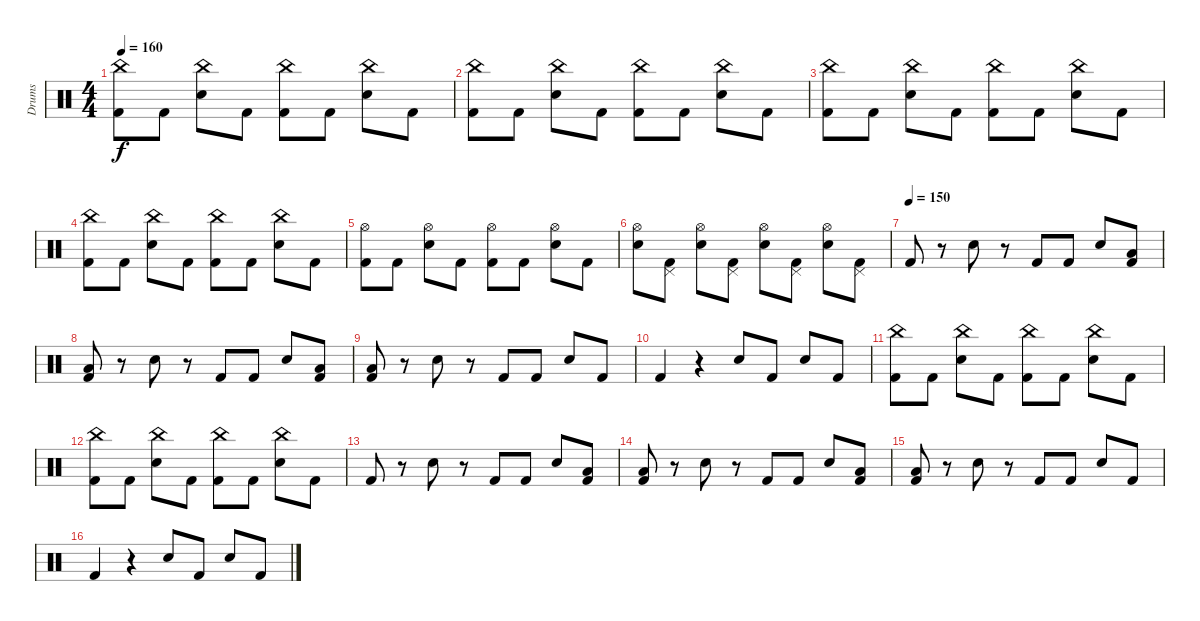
\track ("Drums" "Drums") {instrument percussion}
\staff {score}
\articulation defaults
\ts (4 4)
\tempo 160
\clef neutral
\ks c
("China (hit)" "Kick (hit) 2").8{dy f} "Kick (hit) 2".8 ("China (hit)" "Snare (hit) 2").8 "Kick (hit) 2".8 ("China (hit)" "Kick (hit) 2").8 "Kick (hit) 2".8 ("China (hit)" "Snare (hit) 2").8 "Kick (hit) 2".8 |
("China (hit)" "Kick (hit) 2").8 "Kick (hit) 2".8 ("China (hit)" "Snare (hit) 2").8 "Kick (hit) 2".8 ("China (hit)" "Kick (hit) 2").8 "Kick (hit) 2".8 ("China (hit)" "Snare (hit) 2").8 "Kick (hit) 2".8 |
("China (hit)" "Kick (hit) 2").8 "Kick (hit) 2".8 ("China (hit)" "Snare (hit) 2").8 "Kick (hit) 2".8 ("China (hit)" "Kick (hit) 2").8 "Kick (hit) 2".8 ("China (hit)" "Snare (hit) 2").8 "Kick (hit) 2".8 |
("China (hit)" "Kick (hit) 2").8 "Kick (hit) 2".8 ("China (hit)" "Snare (hit) 2").8 "Kick (hit) 2".8 ("China (hit)" "Kick (hit) 2").8 "Kick (hit) 2".8 ("China (hit)" "Snare (hit) 2").8 "Kick (hit) 2".8 |
("Hi-Hat (open)" "Kick (hit) 2").8 "Kick (hit) 2".8 ("Hi-Hat (open)" "Snare (hit) 2").8 "Kick (hit) 2".8 ("Hi-Hat (open)" "Kick (hit) 2").8 "Kick (hit) 2".8 ("Hi-Hat (open)" "Snare (hit) 2").8 "Kick (hit) 2".8 |
("Hi-Hat (open)" "Snare (hit) 2").8 ("Pedal Hi-Hat (hit)" "Kick (hit) 2").8 ("Hi-Hat (open)" "Snare (hit) 2").8 ("Pedal Hi-Hat (hit)" "Kick (hit) 2").8 ("Hi-Hat (open)" "Snare (hit) 2").8 ("Pedal Hi-Hat (hit)" "Kick (hit) 2").8 ("Hi-Hat (open)" "Snare (hit) 2").8 ("Pedal Hi-Hat (hit)" "Kick (hit) 2").8 |
\tempo (150)
"Kick (hit) 2".8 r.8 "Snare (hit) 2".8 r.8 "Kick (hit) 2".8 "Kick (hit) 2".8 "Snare (hit) 2".8 ("Low Tom (hit)" "Kick (hit) 2").8 |
("Low Tom (hit)" "Kick (hit) 2").8 r.8 "Snare (hit) 2".8 r.8 "Kick (hit) 2".8 "Kick (hit) 2".8 "Snare (hit) 2".8 ("Low Tom (hit)" "Kick (hit) 2").8 |
("Low Tom (hit)" "Kick (hit) 2").8 r.8 "Snare (hit) 2".8 r.8 "Kick (hit) 2".8 "Kick (hit) 2".8 "Snare (hit) 2".8 "Kick (hit) 2".8 |
"Kick (hit) 2".4 r.4 "Snare (hit) 2".8 "Kick (hit) 2".8 "Snare (hit) 2".8 "Kick (hit) 2".8 |
("China (hit)" "Kick (hit) 2").8 "Kick (hit) 2".8 ("China (hit)" "Snare (hit) 2").8 "Kick (hit) 2".8 ("China (hit)" "Kick (hit) 2").8 "Kick (hit) 2".8 ("China (hit)" "Snare (hit) 2").8 "Kick (hit) 2".8 |
("China (hit)" "Kick (hit) 2").8 "Kick (hit) 2".8 ("China (hit)" "Snare (hit) 2").8 "Kick (hit) 2".8 ("China (hit)" "Kick (hit) 2").8 "Kick (hit) 2".8 ("China (hit)" "Snare (hit) 2").8 "Kick (hit) 2".8 |
"Kick (hit) 2".8 r.8 "Snare (hit) 2".8 r.8 "Kick (hit) 2".8 "Kick (hit) 2".8 "Snare (hit) 2".8 ("Low Tom (hit)" "Kick (hit) 2").8 |
("Low Tom (hit)" "Kick (hit) 2").8 r.8 "Snare (hit) 2".8 r.8 "Kick (hit) 2".8 "Kick (hit) 2".8 "Snare (hit) 2".8 ("Low Tom (hit)" "Kick (hit) 2").8 |
("Low Tom (hit)" "Kick (hit) 2").8 r.8 "Snare (hit) 2".8 r.8 "Kick (hit) 2".8 "Kick (hit) 2".8 "Snare (hit) 2".8 "Kick (hit) 2".8 |
"Kick (hit) 2".4 r.4 "Snare (hit) 2".8 "Kick (hit) 2".8 "Snare (hit) 2".8 "Kick (hit) 2".8
